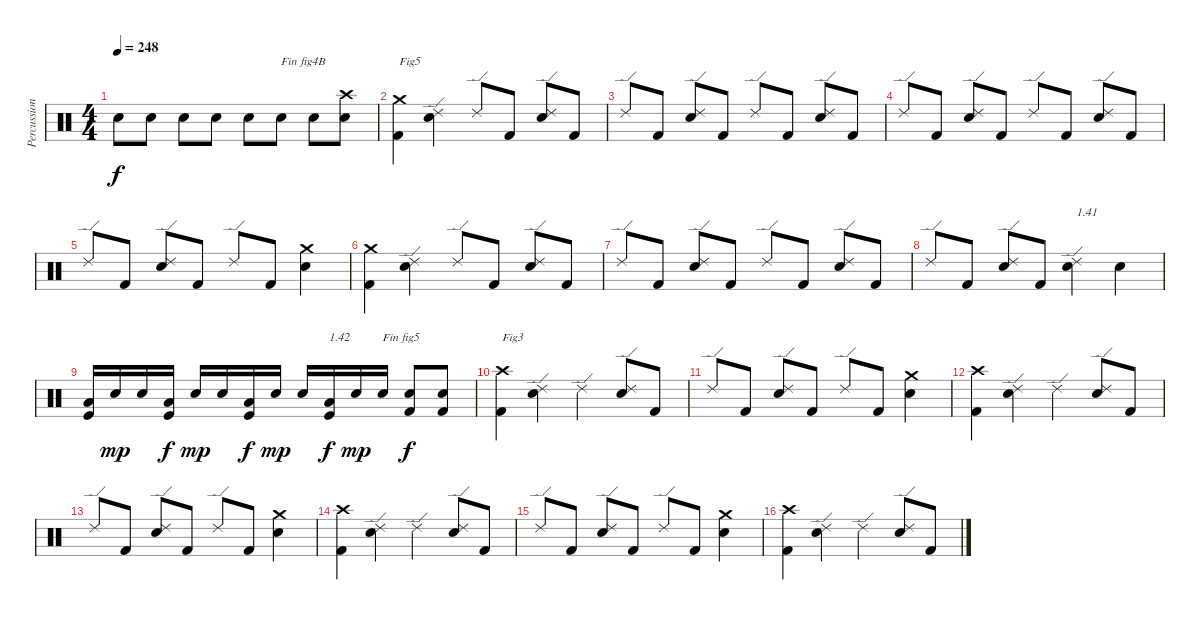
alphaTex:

\track ("Percussions" "Percussion") {instrument percussion}
\staff {score}
\articulation defaults
\ts (4 4)
\tempo 248
\clef neutral
\ks c "Electric Snare (hit)".8{dy f} "Electric Snare (hit)".8 "Electric Snare (hit)".8 "Electric Snare (hit)".8 "Electric Snare (hit)".8 "Electric Snare (hit)".8{txt "Fin fig4B"} "Electric Snare (hit)".8
("Electric Snare (hit)" "Crash high (hit)").8 |
("Kick (hit) 2" "Crash medium (hit)").4{txt "Fig5"} ("Electric Snare (hit)" "Ride (edge) 2").4 "Ride (edge) 2".8 "Kick (hit) 2".8 ("Electric Snare (hit)" "Ride (edge) 2").8 "Kick (hit) 2".8 |
"Ride (edge) 2".8 "Kick (hit) 2".8 ("Electric Snare (hit)" "Ride (edge) 2").8 "Kick (hit) 2".8 "Ride (edge) 2".8 "Kick (hit) 2".8 ("Electric Snare (hit)" "Ride (edge) 2").8 "Kick (hit) 2".8 |
"Ride (edge) 2".8 "Kick (hit) 2".8 ("Electric Snare (hit)" "Ride (edge) 2").8 "Kick (hit) 2".8 "Ride (edge) 2".8 "Kick (hit) 2".8 ("Electric Snare (hit)" "Ride (edge) 2").8 "Kick (hit) 2".8 |
"Ride (edge) 2".8 "Kick (hit) 2".8 ("Electric Snare (hit)" "Ride (edge) 2").8 "Kick (hit) 2".8 "Ride (edge) 2".8 "Kick (hit) 2".8 ("Electric Snare (hit)" "Crash medium (hit)").4 |
("Kick (hit) 2" "Crash medium (hit)").4 ("Electric Snare (hit)" "Ride (edge) 2").4 "Ride (edge) 2".8 "Kick (hit) 2".8 ("Electric Snare (hit)" "Ride (edge) 2").8 "Kick (hit) 2".8 |
"Ride (edge) 2".8 "Kick (hit) 2".8 ("Electric Snare (hit)" "Ride (edge) 2").8 "Kick (hit) 2".8 "Ride (edge) 2".8 "Kick (hit) 2".8 ("Electric Snare (hit)" "Ride (edge) 2").8 "Kick (hit) 2".8 |
"Ride (edge) 2".8 "Kick (hit) 2".8 ("Electric Snare (hit)" "Ride (edge) 2").8 "Kick (hit) 2".8 ("Electric Snare (hit)" "Ride (edge) 2").4{txt "1.41"} "Electric Snare (hit)".4 |
("Kick (hit)" "Low Floor Tom (hit)").16 "Electric Snare (hit)".16{dy mp} "Electric Snare (hit)".16 ("Kick (hit)" "Low Floor Tom (hit)").16{dy f} "Electric Snare (hit)".16{dy mp} "Electric Snare (hit)".16 ("Kick (hit)" "Low Floor Tom (hit)").16{dy f} "Electric Snare (hit)".16{dy mp} "Electric Snare (hit)".16 ("Kick (hit)" "Low Floor Tom (hit)").16{txt "1.42" dy f} "Electric Snare (hit)".16{dy mp} "Electric Snare (hit)".16{txt "Fin fig5"} ("Kick (hit) 2" "Electric Snare (hit)").8{dy f} ("Kick (hit) 2" "Electric Snare (hit)").8 |
("Kick (hit) 2" "Crash high (hit)").4{txt "Fig3"} ("Electric Snare (hit)" "Ride (edge) 2").4 "Ride (edge) 2".4 ("Electric Snare (hit)" "Ride (edge) 2").8 "Kick (hit) 2".8 |
"Ride (edge) 2".8 "Kick (hit) 2".8 ("Electric Snare (hit)" "Ride (edge) 2").8 "Kick (hit) 2".8 "Ride (edge) 2".8 "Kick (hit) 2".8 ("Electric Snare (hit)" "Crash medium (hit)").4 |
("Kick (hit) 2" "Crash high (hit)").4 ("Electric Snare (hit)" "Ride (edge) 2").4 "Ride (edge) 2".4 ("Electric Snare (hit)" "Ride (edge) 2").8 "Kick (hit) 2".8 |
"Ride (edge) 2".8 "Kick (hit) 2".8 ("Electric Snare (hit)" "Ride (edge) 2").8 "Kick (hit) 2".8 "Ride (edge) 2".8 "Kick (hit) 2".8 ("Electric Snare (hit)" "Crash medium (hit)").4 |
("Kick (hit) 2" "Crash high (hit)").4 ("Electric Snare (hit)" "Ride (edge) 2").4 "Ride (edge) 2".4 ("Electric Snare (hit)" "Ride (edge) 2").8 "Kick (hit) 2".8 |
"Ride (edge) 2".8 "Kick (hit) 2".8 ("Electric Snare (hit)" "Ride (edge) 2").8 "Kick (hit) 2".8 "Ride (edge) 2".8 "Kick (hit) 2".8 ("Electric Snare (hit)" "Crash medium (hit)").4 |
("Kick (hit) 2" "Crash high (hit)").4 ("Electric Snare (hit)" "Ride (edge) 2").4 "Ride (edge) 2".4 ("Electric Snare (hit)" "Ride (edge) 2").8 "Kick (hit) 2".8
